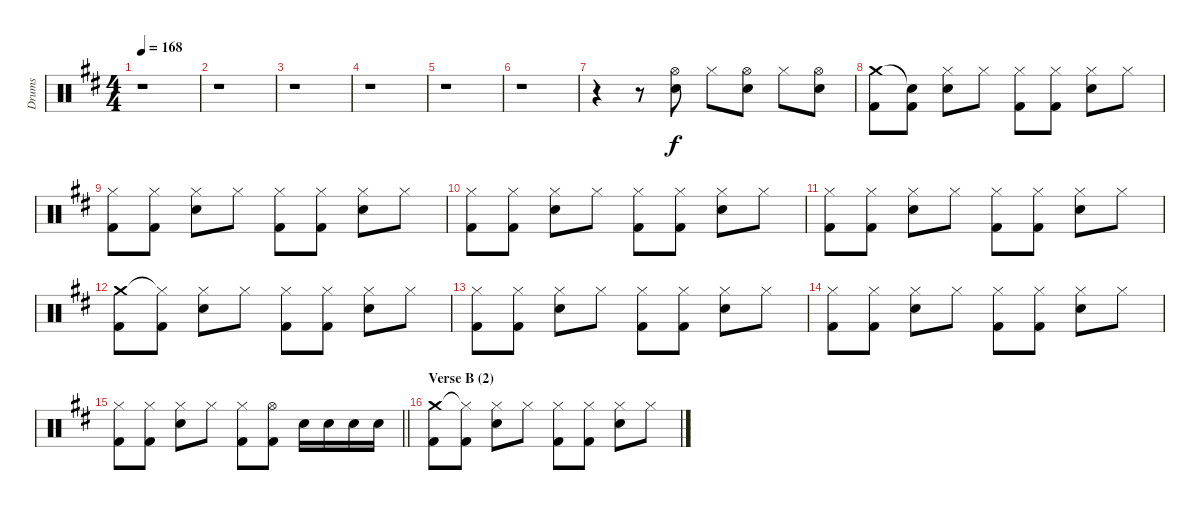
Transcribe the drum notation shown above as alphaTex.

\track ("Drums" "Drums") {instrument percussion}
\staff {score}
\articulation defaults
\ts (4 4)
\tempo 168
\clef neutral
\ks d
r.1{dy f} |
r.1 |
r.1 |
r.1 |
r.1 |
r.1 |
r.4 r.8 ("Hi-Hat (open)" "Electric Snare (hit)").8 "Hi-Hat (closed)".8 ("Hi-Hat (open)" "Electric Snare (hit)").8 "Hi-Hat (closed)".8 ("Hi-Hat (open)" "Electric Snare (hit)").8 |
("Crash medium (hit)" "Kick (hit) 2").8 ("Snare (hit)"{t} "Kick (hit) 2").8 ("Hi-Hat (closed)" "Electric Snare (hit)").8 "Hi-Hat (closed)".8 ("Hi-Hat (closed)" "Kick (hit) 2").8 ("Hi-Hat (closed)" "Kick (hit) 2").8 ("Hi-Hat (closed)" "Electric Snare (hit)").8 "Hi-Hat (closed)".8 |
("Hi-Hat (closed)" "Kick (hit) 2").8 ("Hi-Hat (closed)" "Kick (hit) 2").8 ("Hi-Hat (closed)" "Electric Snare (hit)").8 "Hi-Hat (closed)".8 ("Hi-Hat (closed)" "Kick (hit) 2").8 ("Hi-Hat (closed)" "Kick (hit) 2").8 ("Hi-Hat (closed)" "Electric Snare (hit)").8 "Hi-Hat (closed)".8 |
("Hi-Hat (closed)" "Kick (hit) 2").8 ("Hi-Hat (closed)" "Kick (hit) 2").8 ("Hi-Hat (closed)" "Electric Snare (hit)").8 "Hi-Hat (closed)".8 ("Hi-Hat (closed)" "Kick (hit) 2").8 ("Hi-Hat (closed)" "Kick (hit) 2").8 ("Hi-Hat (closed)" "Electric Snare (hit)").8 "Hi-Hat (closed)".8 |
("Hi-Hat (closed)" "Kick (hit) 2").8 ("Hi-Hat (closed)" "Kick (hit) 2").8 ("Hi-Hat (closed)" "Electric Snare (hit)").8 "Hi-Hat (closed)".8 ("Hi-Hat (closed)" "Kick (hit) 2").8 ("Hi-Hat (closed)" "Kick (hit) 2").8 ("Hi-Hat (closed)" "Electric Snare (hit)").8 "Hi-Hat (closed)".8 |
("Crash medium (hit)" "Kick (hit) 2").8 ("Hi-Hat (closed)"{t} "Kick (hit) 2").8 ("Hi-Hat (closed)" "Electric Snare (hit)").8 "Hi-Hat (closed)".8 ("Hi-Hat (closed)" "Kick (hit) 2").8 ("Hi-Hat (closed)" "Kick (hit) 2").8 ("Hi-Hat (closed)" "Electric Snare (hit)").8 "Hi-Hat (closed)".8 |
("Hi-Hat (closed)" "Kick (hit) 2").8 ("Hi-Hat (closed)" "Kick (hit) 2").8 ("Hi-Hat (closed)" "Electric Snare (hit)").8 "Hi-Hat (closed)".8 ("Hi-Hat (closed)" "Kick (hit) 2").8 ("Hi-Hat (closed)" "Kick (hit) 2").8 ("Hi-Hat (closed)" "Electric Snare (hit)").8 "Hi-Hat (closed)".8 |
("Hi-Hat (closed)" "Kick (hit) 2").8 ("Hi-Hat (closed)" "Kick (hit) 2").8 ("Hi-Hat (closed)" "Electric Snare (hit)").8 "Hi-Hat (closed)".8 ("Hi-Hat (closed)" "Kick (hit) 2").8 ("Hi-Hat (closed)" "Kick (hit) 2").8 ("Hi-Hat (closed)" "Electric Snare (hit)").8 "Hi-Hat (closed)".8 |
\barLineRight lightlight
("Hi-Hat (closed)" "Kick (hit) 2").8 ("Hi-Hat (closed)" "Kick (hit) 2").8 ("Hi-Hat (closed)" "Electric Snare (hit)").8 "Hi-Hat (closed)".8 ("Hi-Hat (closed)" "Kick (hit) 2").8 ("Hi-Hat (open)" "Kick (hit) 2").8 "Electric Snare (hit)".16 "Electric Snare (hit)".16 "Electric Snare (hit)".16 "Electric Snare (hit)".16 |
\section ("" "Verse B (2)")
("Crash medium (hit)" "Kick (hit) 2").8 ("Hi-Hat (closed)"{t} "Kick (hit) 2").8 ("Hi-Hat (closed)" "Electric Snare (hit)").8 "Hi-Hat (closed)".8 ("Hi-Hat (closed)" "Kick (hit) 2").8 ("Hi-Hat (closed)" "Kick (hit) 2").8 ("Hi-Hat (closed)" "Electric Snare (hit)").8 "Hi-Hat (closed)".8
